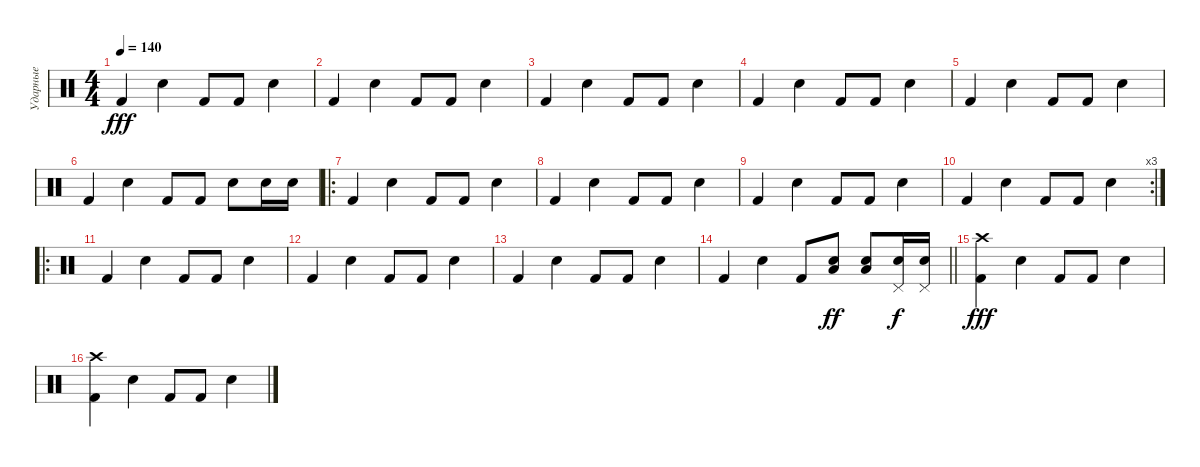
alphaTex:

\track ("Ударные" "Ударные") {instrument percussion}
\staff {score}
\articulation defaults
\ts (4 4)
\tempo 140
\clef neutral
\ks c "Kick (hit) 2".4{dy fff} "Electric Snare (hit)".4 "Kick (hit) 2".8 "Kick (hit) 2".8 "Electric Snare (hit)".4
|
"Kick (hit) 2".4 "Electric Snare (hit)".4 "Kick (hit) 2".8 "Kick (hit) 2".8 "Electric Snare (hit)".4 |
"Kick (hit) 2".4 "Electric Snare (hit)".4 "Kick (hit) 2".8 "Kick (hit) 2".8 "Electric Snare (hit)".4 |
"Kick (hit) 2".4 "Electric Snare (hit)".4 "Kick (hit) 2".8 "Kick (hit) 2".8 "Electric Snare (hit)".4 |
"Kick (hit) 2".4 "Electric Snare (hit)".4 "Kick (hit) 2".8 "Kick (hit) 2".8 "Electric Snare (hit)".4 |
"Kick (hit) 2".4 "Electric Snare (hit)".4 "Kick (hit) 2".8 "Kick (hit) 2".8 "Electric Snare (hit)".8 "Electric Snare (hit)".16 "Electric Snare (hit)".16 |
\ro "Kick (hit) 2".4 "Electric Snare (hit)".4 "Kick (hit) 2".8 "Kick (hit) 2".8 "Electric Snare (hit)".4
|
"Kick (hit) 2".4 "Electric Snare (hit)".4 "Kick (hit) 2".8 "Kick (hit) 2".8 "Electric Snare (hit)".4 |
"Kick (hit) 2".4 "Electric Snare (hit)".4 "Kick (hit) 2".8 "Kick (hit) 2".8 "Electric Snare (hit)".4 |
\rc 3 "Kick (hit) 2".4 "Electric Snare (hit)".4 "Kick (hit) 2".8 "Kick (hit) 2".8 "Electric Snare (hit)".4
|
\ro "Kick (hit) 2".4 "Electric Snare (hit)".4 "Kick (hit) 2".8 "Kick (hit) 2".8 "Electric Snare (hit)".4
|
"Kick (hit) 2".4 "Electric Snare (hit)".4 "Kick (hit) 2".8 "Kick (hit) 2".8 "Electric Snare (hit)".4 |
"Kick (hit) 2".4 "Electric Snare (hit)".4 "Kick (hit) 2".8 "Kick (hit) 2".8 "Electric Snare (hit)".4 |
\barLineRight lightlight "Kick (hit) 2".4 "Electric Snare (hit)".4 "Kick (hit) 2".8
("Low Tom (hit)" "Electric Snare (hit)").8{dy ff} ("Low Floor Tom (hit)" "Electric Snare (hit)").8 ("Pedal Hi-Hat (hit)" "Snare (hit) 2").16{dy f} ("Pedal Hi-Hat (hit)" "Snare (hit) 2").16 |
("Kick (hit) 2" "Crash high (hit)").4{dy fff} "Electric Snare (hit)".4 "Kick (hit) 2".8 "Kick (hit) 2".8 "Electric Snare (hit)".4 |
("Kick (hit) 2" "Crash high (hit)").4 "Electric Snare (hit)".4 "Kick (hit) 2".8 "Kick (hit) 2".8 "Electric Snare (hit)".4
